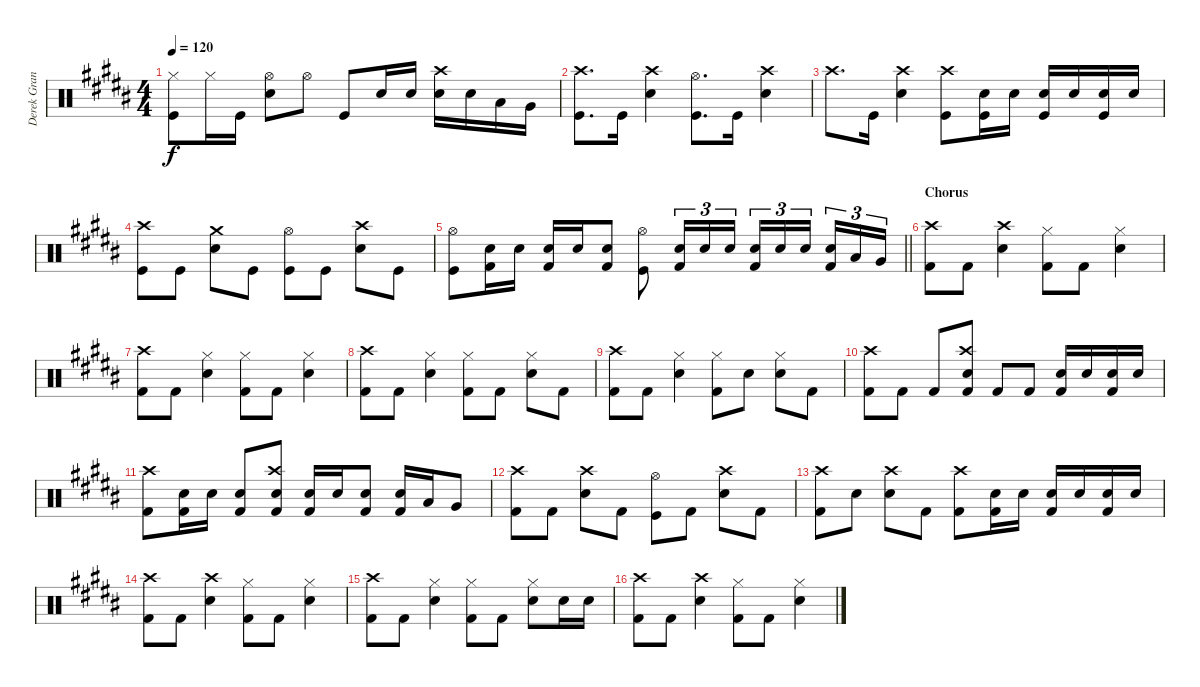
\track ("Derek Grant - Drums" "Derek Gran") {instrument percussion}
\staff {score}
\articulation defaults
\ts (4 4)
\tempo 120
\clef neutral
\ks b
("Kick (hit)" "Hi-Hat (closed)").8{dy f} "Hi-Hat (closed)".16 "Kick (hit)".16 ("Snare (hit) 2" "Hi-Hat (open)").8 "Hi-Hat (open)".8 "Kick (hit)".8 "Snare (hit) 2".16 "Snare (hit) 2".16 ("Snare (hit) 2" "Crash high (hit)").16 "Snare (hit) 2".16 "Low Tom (hit)".16 "Very Low Tom (hit)".16 |
("Kick (hit)" "Crash high (hit)").8{d} "Kick (hit)".16 ("Snare (hit) 2" "Crash high (hit)").4 ("Kick (hit)" "Hi-Hat (open)").8{d} "Kick (hit)".16 ("Snare (hit) 2" "Crash high (hit)").4 |
"Crash high (hit)".8{d} "Kick (hit)".16 ("Snare (hit) 2" "Crash high (hit)").4 ("Kick (hit)" "Crash high (hit)").8 ("Kick (hit)" "Snare (hit) 2").16 "Snare (hit) 2".16 ("Kick (hit)" "Snare (hit) 2").16 "Snare (hit) 2".16 ("Kick (hit)" "Snare (hit) 2").16 "Snare (hit) 2".16 |
("Kick (hit)" "Crash high (hit)").8 "Kick (hit)".8 ("Snare (hit) 2" "Crash medium (hit)").8 "Kick (hit)".8 ("Kick (hit)" "Hi-Hat (open)").8 "Kick (hit)".8 ("Snare (hit) 2" "Crash high (hit)").8 "Kick (hit)".8 |
\barLineRight lightlight
("Kick (hit)" "Hi-Hat (open)").8 ("Snare (hit) 2" "Kick (hit) 2").16 "Snare (hit) 2".16 ("Snare (hit) 2" "Kick (hit) 2").16 "Snare (hit) 2".16 ("Snare (hit) 2" "Kick (hit) 2").8 ("Kick (hit)" "Hi-Hat (open)").8 ("Snare (hit) 2" "Kick (hit) 2").16{tu (3 2)} "Snare (hit) 2".16{tu (3 2)} "Snare (hit) 2".16{tu (3 2)} ("Snare (hit) 2" "Kick (hit) 2").16{tu (3 2)} "Snare (hit) 2".16{tu (3 2)} "Snare (hit) 2".16{tu (3 2) beam splitsecondary} ("Snare (hit) 2" "Kick (hit) 2").16{tu (3 2)} "Low Tom (hit)".16{tu (3 2)} "Very Low Tom (hit)".16{tu (3 2)} |
\section ("" "Chorus")
("Kick (hit) 2" "Crash high (hit)").8 "Kick (hit) 2".8 ("Snare (hit) 2" "Crash high (hit)").4 ("Kick (hit) 2" "Hi-Hat (closed)").8 "Kick (hit) 2".8 ("Snare (hit) 2" "Hi-Hat (closed)").4 |
("Kick (hit) 2" "Crash high (hit)").8 "Kick (hit) 2".8 ("Snare (hit) 2" "Hi-Hat (closed)").4 ("Kick (hit) 2" "Hi-Hat (closed)").8 "Kick (hit) 2".8 ("Snare (hit) 2" "Hi-Hat (closed)").4 |
("Kick (hit) 2" "Crash high (hit)").8 "Kick (hit) 2".8 ("Snare (hit) 2" "Hi-Hat (closed)").4 ("Kick (hit) 2" "Hi-Hat (closed)").8 "Kick (hit) 2".8 ("Snare (hit) 2" "Hi-Hat (closed)").8 "Kick (hit) 2".8 |
("Kick (hit) 2" "Crash high (hit)").8 "Kick (hit) 2".8 ("Snare (hit) 2" "Hi-Hat (closed)").4 ("Kick (hit) 2" "Hi-Hat (closed)").8 "Snare (hit) 2".8 ("Snare (hit) 2" "Hi-Hat (closed)").8 "Kick (hit) 2".8 |
("Kick (hit) 2" "Crash high (hit)").8 "Kick (hit) 2".8 "Kick (hit) 2".8 ("Snare (hit) 2" "Kick (hit) 2" "Crash high (hit)").8 "Kick (hit) 2".8 "Kick (hit) 2".8 ("Kick (hit) 2" "Snare (hit) 2").16 "Snare (hit) 2".16 ("Kick (hit) 2" "Snare (hit) 2").16 "Snare (hit) 2".16 |
("Kick (hit) 2" "Crash high (hit)").8 ("Kick (hit) 2" "Snare (hit) 2").16 "Snare (hit) 2".16 ("Kick (hit) 2" "Snare (hit) 2").8 ("Snare (hit) 2" "Kick (hit) 2" "Crash high (hit)").8 ("Kick (hit) 2" "Snare (hit) 2").16 "Snare (hit) 2".16 ("Kick (hit) 2" "Snare (hit) 2").8 ("Snare (hit) 2" "Kick (hit) 2").16 "Low Tom (hit)".16 "Very Low Tom (hit)".8 |
("Kick (hit) 2" "Crash high (hit)").8 "Kick (hit) 2".8 ("Snare (hit) 2" "Crash high (hit)").8 "Kick (hit) 2".8 ("Kick (hit)" "Hi-Hat (open)").8 "Kick (hit) 2".8 ("Snare (hit) 2" "Crash high (hit)").8 "Kick (hit) 2".8 |
("Kick (hit) 2" "Crash high (hit)").8 "Snare (hit) 2".8 ("Snare (hit) 2" "Crash high (hit)").8 "Kick (hit) 2".8 ("Kick (hit) 2" "Crash high (hit)").8 ("Kick (hit) 2" "Snare (hit) 2").16 "Snare (hit) 2".16 ("Kick (hit) 2" "Snare (hit) 2").16 "Snare (hit) 2".16 ("Kick (hit) 2" "Snare (hit) 2").16 "Snare (hit) 2".16 |
("Kick (hit) 2" "Crash high (hit)").8 "Kick (hit) 2".8 ("Snare (hit) 2" "Crash high (hit)").4 ("Kick (hit) 2" "Hi-Hat (closed)").8 "Kick (hit) 2".8 ("Snare (hit) 2" "Hi-Hat (closed)").4 |
("Kick (hit) 2" "Crash high (hit)").8 "Kick (hit) 2".8 ("Snare (hit) 2" "Hi-Hat (closed)").4 ("Kick (hit) 2" "Hi-Hat (closed)").8 "Kick (hit) 2".8 ("Snare (hit) 2" "Hi-Hat (closed)").8 "Snare (hit) 2".16 "Snare (hit) 2".16 |
("Kick (hit) 2" "Crash high (hit)").8 "Kick (hit) 2".8 ("Snare (hit) 2" "Crash high (hit)").4 ("Kick (hit) 2" "Hi-Hat (closed)").8 "Kick (hit) 2".8 ("Snare (hit) 2" "Hi-Hat (closed)").4
